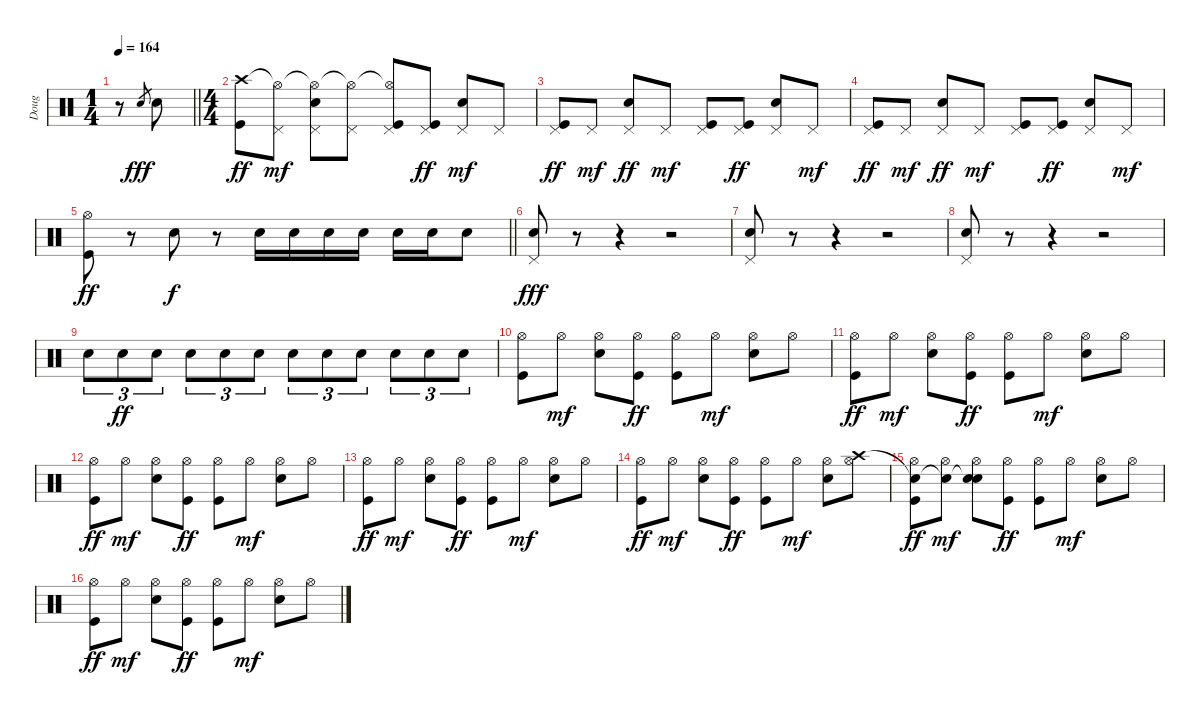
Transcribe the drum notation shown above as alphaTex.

\track ("Doug" "Doug") {instrument percussion}
\staff {score}
\articulation defaults
\ts (1 4)
\tempo 164
\clef neutral
\barLineRight lightlight
\ks c
r.8{dy fff} "Electric Snare (hit)".8{gr} "Electric Snare (hit)".8 |
\ts (4 4)
("Crash high (hit)" "Kick (hit)").8{dy ff} ("Hi-Hat (open)"{t} "Pedal Hi-Hat (hit)").8{dy mf} ("Hi-Hat (open)"{t} "Pedal Hi-Hat (hit)" "Electric Snare (hit)").8 ("Hi-Hat (open)"{t} "Pedal Hi-Hat (hit)").8 ("Hi-Hat (open)"{t} "Pedal Hi-Hat (hit)" "Kick (hit)").8 ("Pedal Hi-Hat (hit)" "Kick (hit)").8{dy ff} ("Pedal Hi-Hat (hit)" "Electric Snare (hit)").8{dy mf} "Pedal Hi-Hat (hit)".8 |
("Pedal Hi-Hat (hit)" "Kick (hit)").8{dy ff} "Pedal Hi-Hat (hit)".8{dy mf} ("Pedal Hi-Hat (hit)" "Electric Snare (hit)").8{dy ff} "Pedal Hi-Hat (hit)".8{dy mf} ("Pedal Hi-Hat (hit)" "Kick (hit)").8 ("Pedal Hi-Hat (hit)" "Kick (hit)").8{dy ff} ("Pedal Hi-Hat (hit)" "Electric Snare (hit)").8 "Pedal Hi-Hat (hit)".8{dy mf} |
("Pedal Hi-Hat (hit)" "Kick (hit)").8{dy ff} "Pedal Hi-Hat (hit)".8{dy mf} ("Pedal Hi-Hat (hit)" "Electric Snare (hit)").8{dy ff} "Pedal Hi-Hat (hit)".8{dy mf} ("Pedal Hi-Hat (hit)" "Kick (hit)").8 ("Pedal Hi-Hat (hit)" "Kick (hit)").8{dy ff} ("Pedal Hi-Hat (hit)" "Electric Snare (hit)").8 "Pedal Hi-Hat (hit)".8{dy mf} |
\barLineRight lightlight
("Hi-Hat (open)" "Kick (hit)").8{dy ff} r.8 "Electric Snare (hit)".8{dy f} r.8 "Electric Snare (hit)".16 "Electric Snare (hit)".16 "Electric Snare (hit)".16 "Electric Snare (hit)".16 "Electric Snare (hit)".16 "Electric Snare (hit)".16 "Electric Snare (hit)".8 |
("Pedal Hi-Hat (hit)" "Electric Snare (hit)").8{dy fff} r.8 r.4 r.2 |
("Pedal Hi-Hat (hit)" "Electric Snare (hit)").8 r.8 r.4 r.2 |
("Pedal Hi-Hat (hit)" "Electric Snare (hit)").8 r.8 r.4 r.2 |
"Electric Snare (hit)".8{tu (3 2)} "Electric Snare (hit)".8{tu (3 2) dy ff} "Electric Snare (hit)".8{tu (3 2)} "Electric Snare (hit)".8{tu (3 2)} "Electric Snare (hit)".8{tu (3 2)} "Electric Snare (hit)".8{tu (3 2)} "Electric Snare (hit)".8{tu (3 2)} "Electric Snare (hit)".8{tu (3 2)} "Electric Snare (hit)".8{tu (3 2)} "Electric Snare (hit)".8{tu (3 2)} "Electric Snare (hit)".8{tu (3 2)} "Electric Snare (hit)".8{tu (3 2)} |
("Hi-Hat (open)" "Kick (hit)").8 "Hi-Hat (open)".8{dy mf} ("Hi-Hat (open)" "Electric Snare (hit)").8 ("Hi-Hat (open)" "Kick (hit)").8{dy ff} ("Hi-Hat (open)" "Kick (hit)").8 "Hi-Hat (open)".8{dy mf} ("Hi-Hat (open)" "Electric Snare (hit)").8 "Hi-Hat (open)".8 |
("Hi-Hat (open)" "Kick (hit)").8{dy ff} "Hi-Hat (open)".8{dy mf} ("Hi-Hat (open)" "Electric Snare (hit)").8 ("Hi-Hat (open)" "Kick (hit)").8{dy ff} ("Hi-Hat (open)" "Kick (hit)").8 "Hi-Hat (open)".8{dy mf} ("Hi-Hat (open)" "Electric Snare (hit)").8 "Hi-Hat (open)".8 |
("Hi-Hat (open)" "Kick (hit)").8{dy ff} "Hi-Hat (open)".8{dy mf} ("Hi-Hat (open)" "Electric Snare (hit)").8 ("Hi-Hat (open)" "Kick (hit)").8{dy ff} ("Hi-Hat (open)" "Kick (hit)").8 "Hi-Hat (open)".8{dy mf} ("Hi-Hat (open)" "Electric Snare (hit)").8 "Hi-Hat (open)".8 |
("Hi-Hat (open)" "Kick (hit)").8{dy ff} "Hi-Hat (open)".8{dy mf} ("Hi-Hat (open)" "Electric Snare (hit)").8 ("Hi-Hat (open)" "Kick (hit)").8{dy ff} ("Hi-Hat (open)" "Kick (hit)").8 "Hi-Hat (open)".8{dy mf} ("Hi-Hat (open)" "Electric Snare (hit)").8 "Hi-Hat (open)".8 |
("Hi-Hat (open)" "Kick (hit)").8{dy ff} "Hi-Hat (open)".8{dy mf} ("Hi-Hat (open)" "Electric Snare (hit)").8 ("Hi-Hat (open)" "Kick (hit)").8{dy ff} ("Hi-Hat (open)" "Kick (hit)").8 "Hi-Hat (open)".8{dy mf} ("Hi-Hat (open)" "Electric Snare (hit)").8 ("Crash high (hit)" "Hi-Hat (open)").8 |
("Snare (hit)"{t} "Hi-Hat (open)" "Kick (hit)").8{dy ff} ("Snare (hit)"{t} "Hi-Hat (open)").8{dy mf} ("Snare (hit)"{t} "Hi-Hat (open)" "Electric Snare (hit)").8 ("Hi-Hat (open)" "Kick (hit)").8{dy ff} ("Hi-Hat (open)" "Kick (hit)").8 "Hi-Hat (open)".8{dy mf} ("Hi-Hat (open)" "Electric Snare (hit)").8 "Hi-Hat (open)".8 |
("Hi-Hat (open)" "Kick (hit)").8{dy ff} "Hi-Hat (open)".8{dy mf} ("Hi-Hat (open)" "Electric Snare (hit)").8 ("Hi-Hat (open)" "Kick (hit)").8{dy ff} ("Hi-Hat (open)" "Kick (hit)").8 "Hi-Hat (open)".8{dy mf} ("Hi-Hat (open)" "Electric Snare (hit)").8 "Hi-Hat (open)".8
